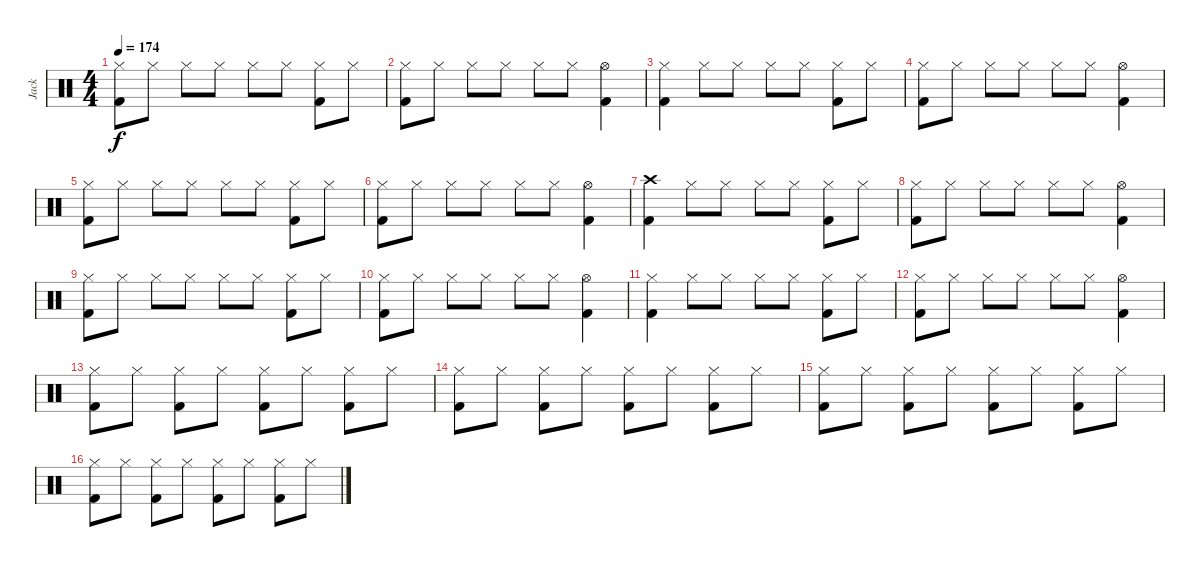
\track ("Jack" "Jack") {instrument percussion}
\staff {score}
\articulation defaults
\ts (4 4)
\tempo 174
\clef neutral
\ks c
("Hi-Hat (closed)" "Kick (hit) 2").8{dy f} "Hi-Hat (closed)".8 "Hi-Hat (closed)".8 "Hi-Hat (closed)".8 "Hi-Hat (closed)".8 "Hi-Hat (closed)".8 ("Hi-Hat (closed)" "Kick (hit) 2").8 "Hi-Hat (closed)".8 |
("Hi-Hat (closed)" "Kick (hit) 2").8 "Hi-Hat (closed)".8 "Hi-Hat (closed)".8 "Hi-Hat (closed)".8 "Hi-Hat (closed)".8 "Hi-Hat (closed)".8 ("Hi-Hat (open)" "Kick (hit) 2").4 |
("Hi-Hat (closed)" "Kick (hit) 2").4 "Hi-Hat (closed)".8 "Hi-Hat (closed)".8 "Hi-Hat (closed)".8 "Hi-Hat (closed)".8 ("Hi-Hat (closed)" "Kick (hit) 2").8 "Hi-Hat (closed)".8 |
("Hi-Hat (closed)" "Kick (hit) 2").8 "Hi-Hat (closed)".8 "Hi-Hat (closed)".8 "Hi-Hat (closed)".8 "Hi-Hat (closed)".8 "Hi-Hat (closed)".8 ("Hi-Hat (open)" "Kick (hit) 2").4 |
("Hi-Hat (closed)" "Kick (hit) 2").8 "Hi-Hat (closed)".8 "Hi-Hat (closed)".8 "Hi-Hat (closed)".8 "Hi-Hat (closed)".8 "Hi-Hat (closed)".8 ("Hi-Hat (closed)" "Kick (hit) 2").8 "Hi-Hat (closed)".8 |
("Hi-Hat (closed)" "Kick (hit) 2").8 "Hi-Hat (closed)".8 "Hi-Hat (closed)".8 "Hi-Hat (closed)".8 "Hi-Hat (closed)".8 "Hi-Hat (closed)".8 ("Hi-Hat (open)" "Kick (hit) 2").4 |
("Crash high (hit)" "Kick (hit) 2").4 "Hi-Hat (closed)".8 "Hi-Hat (closed)".8 "Hi-Hat (closed)".8 "Hi-Hat (closed)".8 ("Hi-Hat (closed)" "Kick (hit) 2").8 "Hi-Hat (closed)".8 |
("Hi-Hat (closed)" "Kick (hit) 2").8 "Hi-Hat (closed)".8 "Hi-Hat (closed)".8 "Hi-Hat (closed)".8 "Hi-Hat (closed)".8 "Hi-Hat (closed)".8 ("Hi-Hat (open)" "Kick (hit) 2").4 |
("Hi-Hat (closed)" "Kick (hit) 2").8 "Hi-Hat (closed)".8 "Hi-Hat (closed)".8 "Hi-Hat (closed)".8 "Hi-Hat (closed)".8 "Hi-Hat (closed)".8 ("Hi-Hat (closed)" "Kick (hit) 2").8 "Hi-Hat (closed)".8 |
("Hi-Hat (closed)" "Kick (hit) 2").8 "Hi-Hat (closed)".8 "Hi-Hat (closed)".8 "Hi-Hat (closed)".8 "Hi-Hat (closed)".8 "Hi-Hat (closed)".8 ("Hi-Hat (open)" "Kick (hit) 2").4 |
("Hi-Hat (closed)" "Kick (hit) 2").4 "Hi-Hat (closed)".8 "Hi-Hat (closed)".8 "Hi-Hat (closed)".8 "Hi-Hat (closed)".8 ("Hi-Hat (closed)" "Kick (hit) 2").8 "Hi-Hat (closed)".8 |
("Hi-Hat (closed)" "Kick (hit) 2").8 "Hi-Hat (closed)".8 "Hi-Hat (closed)".8 "Hi-Hat (closed)".8 "Hi-Hat (closed)".8 "Hi-Hat (closed)".8 ("Hi-Hat (open)" "Kick (hit) 2").4 |
("Hi-Hat (closed)" "Kick (hit) 2").8 "Hi-Hat (closed)".8 ("Hi-Hat (closed)" "Kick (hit) 2").8 "Hi-Hat (closed)".8 ("Hi-Hat (closed)" "Kick (hit) 2").8 "Hi-Hat (closed)".8 ("Hi-Hat (closed)" "Kick (hit) 2").8 "Hi-Hat (closed)".8 |
("Hi-Hat (closed)" "Kick (hit) 2").8 "Hi-Hat (closed)".8 ("Hi-Hat (closed)" "Kick (hit) 2").8 "Hi-Hat (closed)".8 ("Hi-Hat (closed)" "Kick (hit) 2").8 "Hi-Hat (closed)".8 ("Hi-Hat (closed)" "Kick (hit) 2").8 "Hi-Hat (closed)".8 |
("Hi-Hat (closed)" "Kick (hit) 2").8 "Hi-Hat (closed)".8 ("Hi-Hat (closed)" "Kick (hit) 2").8 "Hi-Hat (closed)".8 ("Hi-Hat (closed)" "Kick (hit) 2").8 "Hi-Hat (closed)".8 ("Hi-Hat (closed)" "Kick (hit) 2").8 "Hi-Hat (closed)".8 |
("Hi-Hat (closed)" "Kick (hit) 2").8 "Hi-Hat (closed)".8 ("Hi-Hat (closed)" "Kick (hit) 2").8 "Hi-Hat (closed)".8 ("Hi-Hat (closed)" "Kick (hit) 2").8 "Hi-Hat (closed)".8 ("Hi-Hat (closed)" "Kick (hit) 2").8 "Hi-Hat (closed)".8
